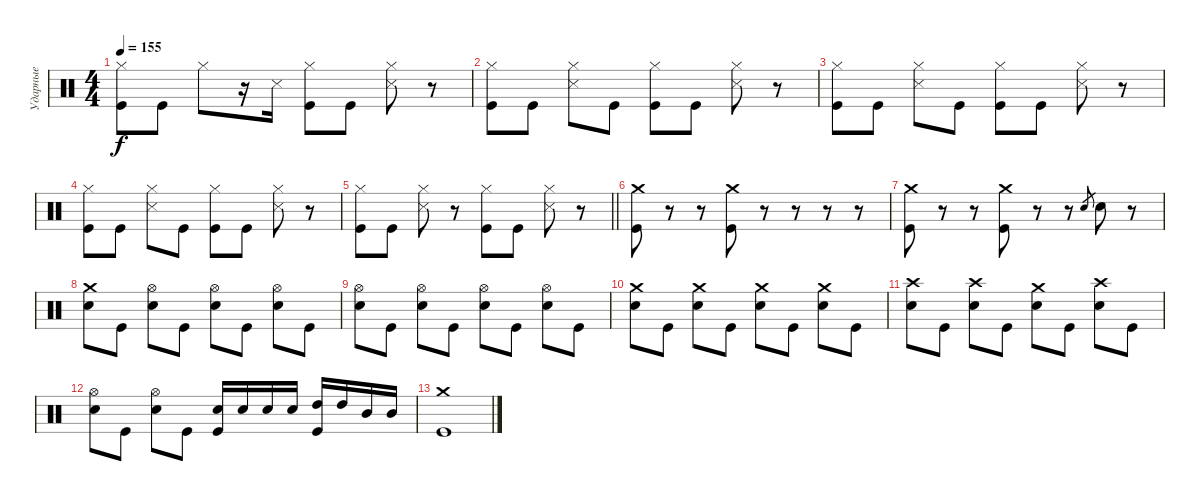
\track ("Ударные" "Ударные") {instrument percussion}
\staff {score}
\articulation defaults
\ts (4 4)
\tempo 155
\clef neutral
\ks c
("Hi-Hat (closed)" "Kick (hit)").8{dy f} "Kick (hit)".8 "Hi-Hat (closed)".8 r.16 "Snare (side stick) 3".16 ("Hi-Hat (closed)" "Kick (hit)").8 "Kick (hit)".8 ("Hi-Hat (closed)" "Snare (side stick) 3").8 r.8 |
("Hi-Hat (closed)" "Kick (hit)").8 "Kick (hit)".8 ("Hi-Hat (closed)" "Snare (side stick) 3").8 "Kick (hit)".8 ("Hi-Hat (closed)" "Kick (hit)").8 "Kick (hit)".8 ("Hi-Hat (closed)" "Snare (side stick) 3").8 r.8 |
("Hi-Hat (closed)" "Kick (hit)").8 "Kick (hit)".8 ("Hi-Hat (closed)" "Snare (side stick) 3").8 "Kick (hit)".8 ("Hi-Hat (closed)" "Kick (hit)").8 "Kick (hit)".8 ("Hi-Hat (closed)" "Snare (side stick) 3").8 r.8 |
("Hi-Hat (closed)" "Kick (hit)").8 "Kick (hit)".8 ("Hi-Hat (closed)" "Snare (side stick) 3").8 "Kick (hit)".8 ("Hi-Hat (closed)" "Kick (hit)").8 "Kick (hit)".8 ("Hi-Hat (closed)" "Snare (side stick) 3").8 r.8 |
\barLineRight lightlight
("Hi-Hat (closed)" "Kick (hit)").8 "Kick (hit)".8 ("Hi-Hat (closed)" "Snare (side stick) 3").8 r.8 ("Hi-Hat (closed)" "Kick (hit)").8 "Kick (hit)".8 ("Hi-Hat (closed)" "Snare (side stick) 3").8 r.8 |
\section ("" " ")
("Crash medium (hit)" "Kick (hit)").8 r.8 r.8 ("Crash medium (hit)" "Kick (hit)").8 r.8 r.8 r.8 r.8 |
("Crash medium (hit)" "Kick (hit)").8 r.8 r.8 ("Crash medium (hit)" "Kick (hit)").8 r.8 r.8 "Electric Snare (hit)".8{gr} "Electric Snare (hit)".8 r.8 |
("Crash medium (hit)" "Electric Snare (hit)").8 "Kick (hit)".8 ("Hi-Hat (open)" "Electric Snare (hit)").8 "Kick (hit)".8 ("Hi-Hat (open)" "Electric Snare (hit)").8 "Kick (hit)".8 ("Hi-Hat (open)" "Electric Snare (hit)").8 "Kick (hit)".8 |
("Hi-Hat (open)" "Electric Snare (hit)").8 "Kick (hit)".8 ("Hi-Hat (open)" "Electric Snare (hit)").8 "Kick (hit)".8 ("Hi-Hat (open)" "Electric Snare (hit)").8 "Kick (hit)".8 ("Hi-Hat (open)" "Electric Snare (hit)").8 "Kick (hit)".8 |
("Crash medium (hit)" "Electric Snare (hit)").8 "Kick (hit)".8 ("Crash medium (hit)" "Electric Snare (hit)").8 "Kick (hit)".8 ("Crash medium (hit)" "Electric Snare (hit)").8 "Kick (hit)".8 ("Crash medium (hit)" "Electric Snare (hit)").8 "Kick (hit)".8 |
("Crash high (hit)" "Electric Snare (hit)").8 "Kick (hit)".8 ("Crash high (hit)" "Electric Snare (hit)").8 "Kick (hit)".8 ("Crash medium (hit)" "Electric Snare (hit)").8 "Kick (hit)".8 ("Crash high (hit)" "Electric Snare (hit)").8 "Kick (hit)".8 |
("Hi-Hat (open)" "Electric Snare (hit)").8 "Kick (hit)".8 ("Hi-Hat (open)" "Electric Snare (hit)").8 "Kick (hit)".8 ("Electric Snare (hit)" "Kick (hit)").16 "Electric Snare (hit)".16 "Electric Snare (hit)".16 "Electric Snare (hit)".16 ("High Tom (hit)" "Kick (hit)").16 "High Tom (hit)".16 "Mid Tom (hit)".16 "Mid Tom (hit)".16 |
("Crash medium (hit)" "Kick (hit)").1
